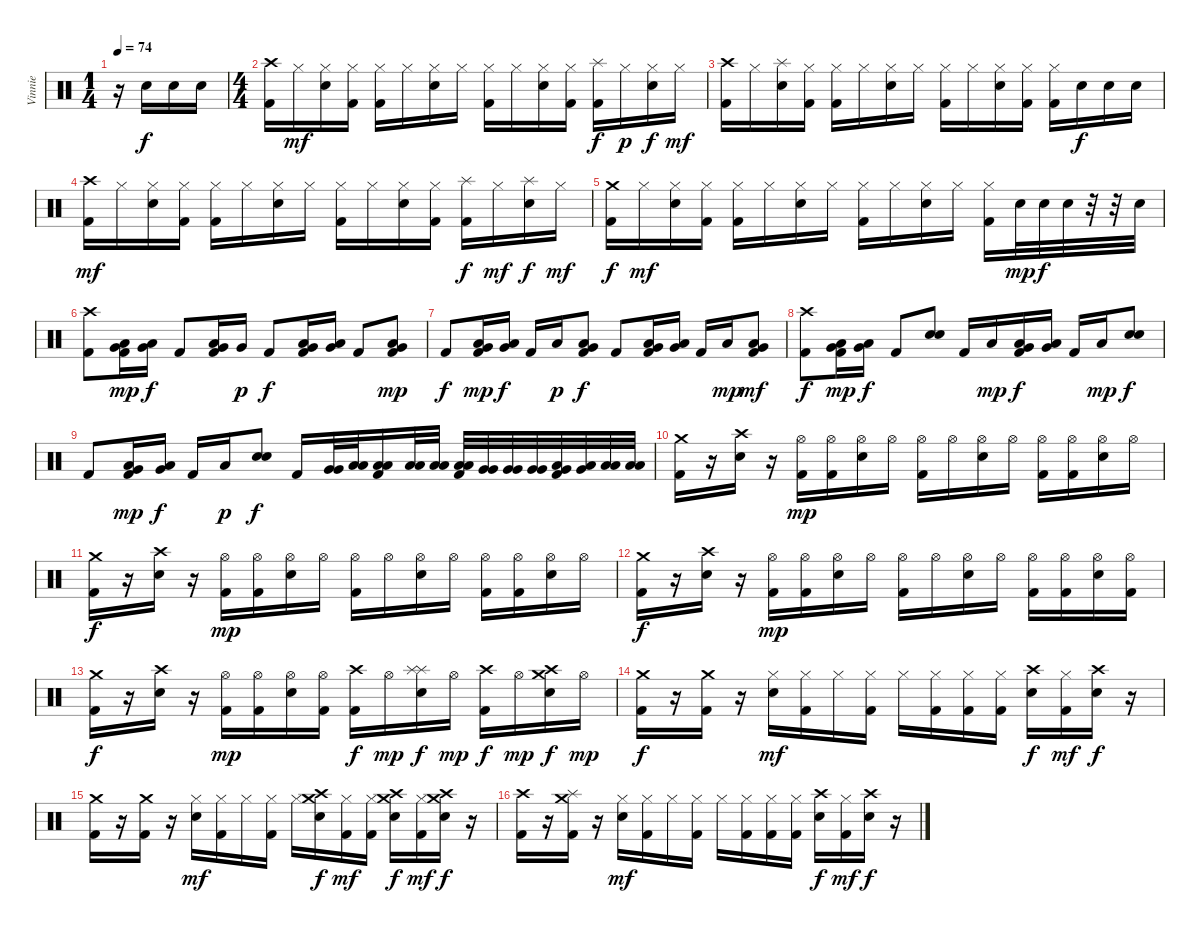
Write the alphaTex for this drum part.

\track ("Vinnie" "Vinnie") {instrument percussion}
\staff {score}
\articulation defaults
\ts (1 4)
\tempo 74
\clef neutral
\ks c
r.16{dy f volume 16} "Electric Snare (hit)".16 "Electric Snare (hit)".16 "Electric Snare (hit)".16 |
\ts (4 4)
("Crash high (hit)" "Kick (hit) 2").16 "Hi-Hat (closed)".16{dy mf} ("Hi-Hat (closed)" "Electric Snare (hit)").16 ("Hi-Hat (closed)" "Kick (hit) 2").16 ("Hi-Hat (closed)" "Kick (hit) 2").16 "Hi-Hat (closed)".16 ("Hi-Hat (closed)" "Electric Snare (hit)").16 "Hi-Hat (closed)".16 ("Hi-Hat (closed)" "Kick (hit) 2").16 "Hi-Hat (closed)".16 ("Hi-Hat (closed)" "Electric Snare (hit)").16 ("Hi-Hat (closed)" "Kick (hit) 2").16 ("Splash (hit)" "Kick (hit) 2").16{dy f} "Hi-Hat (closed)".16{dy p} ("Hi-Hat (closed)" "Electric Snare (hit)").16{dy f} "Hi-Hat (closed)".16{dy mf} |
("Crash high (hit)" "Kick (hit) 2").16 "Hi-Hat (closed)".16 ("Splash (hit)" "Electric Snare (hit)").16 ("Hi-Hat (closed)" "Kick (hit) 2").16 ("Hi-Hat (closed)" "Kick (hit) 2").16 "Hi-Hat (closed)".16 ("Hi-Hat (closed)" "Electric Snare (hit)").16 "Hi-Hat (closed)".16 ("Hi-Hat (closed)" "Kick (hit) 2").16 "Hi-Hat (closed)".16 ("Hi-Hat (closed)" "Electric Snare (hit)").16 ("Hi-Hat (closed)" "Kick (hit) 2").16 ("Hi-Hat (closed)" "Kick (hit) 2").16 "Electric Snare (hit)".16{dy f} "Electric Snare (hit)".16 "Electric Snare (hit)".16 |
("Crash high (hit)" "Kick (hit) 2").16{dy mf} "Hi-Hat (closed)".16 ("Hi-Hat (closed)" "Electric Snare (hit)").16 ("Hi-Hat (closed)" "Kick (hit) 2").16 ("Hi-Hat (closed)" "Kick (hit) 2").16 "Hi-Hat (closed)".16 ("Hi-Hat (closed)" "Electric Snare (hit)").16 "Hi-Hat (closed)".16 ("Hi-Hat (closed)" "Kick (hit) 2").16 "Hi-Hat (closed)".16 ("Hi-Hat (closed)" "Electric Snare (hit)").16 ("Hi-Hat (closed)" "Kick (hit) 2").16 ("Splash (hit)" "Kick (hit) 2").16{dy f} "Hi-Hat (closed)".16{dy mf} ("Splash (hit)" "Electric Snare (hit)").16{dy f} "Hi-Hat (closed)".16{dy mf} |
("Crash medium (hit)" "Kick (hit) 2").16{dy f} "Hi-Hat (closed)".16{dy mf} ("Hi-Hat (closed)" "Electric Snare (hit)").16 ("Hi-Hat (closed)" "Kick (hit) 2").16 ("Hi-Hat (closed)" "Kick (hit) 2").16 "Hi-Hat (closed)".16 ("Hi-Hat (closed)" "Electric Snare (hit)").16 "Hi-Hat (closed)".16 ("Hi-Hat (closed)" "Kick (hit) 2").16 "Hi-Hat (closed)".16 ("Hi-Hat (closed)" "Electric Snare (hit)").16 "Hi-Hat (closed)".16 ("Hi-Hat (closed)" "Kick (hit) 2").16 "Electric Snare (hit)".32{dy mp} "Electric Snare (hit)".32{dy f} "Electric Snare (hit)".32 r.32 r.32 "Electric Snare (hit)".32 |
("Crash high (hit)" "Kick (hit) 2").8 ("Very Low Tom (hit)" "Low Floor Tom (hit)" "Kick (hit) 2").16{bd 60 dy mp} ("Very Low Tom (hit)" "Low Floor Tom (hit)").16{dy f} "Kick (hit) 2".8 ("Very Low Tom (hit)" "Low Floor Tom (hit)" "Kick (hit) 2").16 "Very Low Tom (hit)".16{dy p} "Kick (hit) 2".8{dy f} ("Very Low Tom (hit)" "Low Floor Tom (hit)" "Kick (hit) 2").16{bd 60} ("Very Low Tom (hit)" "Low Floor Tom (hit)").16 "Kick (hit) 2".8 ("Very Low Tom (hit)" "Low Floor Tom (hit)" "Kick (hit) 2").8{dy mp} |
"Kick (hit) 2".8{dy f} ("Very Low Tom (hit)" "Low Floor Tom (hit)" "Kick (hit) 2").16{dy mp} ("Very Low Tom (hit)" "Low Floor Tom (hit)").16{bd 60 dy f} "Kick (hit) 2".16 "Low Floor Tom (hit)".16{dy p} ("Very Low Tom (hit)" "Low Floor Tom (hit)" "Kick (hit) 2").8{dy f} "Kick (hit) 2".8 ("Very Low Tom (hit)" "Low Floor Tom (hit)" "Kick (hit) 2").16 ("Very Low Tom (hit)" "Low Floor Tom (hit)").16{bd 60} "Kick (hit) 2".16 "Low Floor Tom (hit)".16{dy mp} ("Very Low Tom (hit)" "Low Floor Tom (hit)" "Kick (hit) 2").8{dy mf} |
("Crash high (hit)" "Kick (hit) 2").8{dy f} ("Very Low Tom (hit)" "Low Floor Tom (hit)" "Kick (hit) 2").16{bd 60 dy mp} ("Very Low Tom (hit)" "Low Floor Tom (hit)").16{dy f} "Kick (hit) 2".8 ("Electric Snare (hit)" "Electric Snare (hit)").8{bd 120} "Kick (hit) 2".16 "Low Floor Tom (hit)".16{dy mp} ("Low Tom (hit)" "Very Low Tom (hit)" "Kick (hit) 2").16{bd 60 dy f} ("Low Tom (hit)" "Very Low Tom (hit)").16 "Kick (hit) 2".16 "Low Floor Tom (hit)".16{dy mp} ("Electric Snare (hit)" "Electric Snare (hit)").8{bd 60 dy f} |
"Kick (hit) 2".8 ("Very Low Tom (hit)" "Low Floor Tom (hit)" "Kick (hit) 2").16{bd 60 dy mp} ("Very Low Tom (hit)" "Low Floor Tom (hit)").16{dy f} "Kick (hit) 2".16 "Low Floor Tom (hit)".16{dy p} ("Electric Snare (hit)" "Electric Snare (hit)").8{bd 30 dy f} "Kick (hit) 2".16 ("Very Low Tom (hit)" "Very Low Tom (hit)").32 ("Low Floor Tom (hit)" "Low Floor Tom (hit)").32 ("Low Floor Tom (hit)" "Low Floor Tom (hit)" "Kick (hit) 2").16 ("Low Tom (hit)" "Low Tom (hit)").32 ("Low Tom (hit)" "Low Tom (hit)").32 ("Low Tom (hit)" "Low Tom (hit)" "Kick (hit) 2").32 ("Very Low Tom (hit)" "Very Low Tom (hit)").32 ("Very Low Tom (hit)" "Very Low Tom (hit)").32 ("Very Low Tom (hit)" "Very Low Tom (hit)").32 ("Very Low Tom (hit)" "Low Floor Tom (hit)" "Kick (hit) 2").32 ("Very Low Tom (hit)" "Low Floor Tom (hit)").32 ("Low Floor Tom (hit)" "Low Floor Tom (hit)").32 ("Low Floor Tom (hit)" "Low Floor Tom (hit)").32 |
("Crash medium (hit)" "Kick (hit) 2").16 r.16 ("Crash high (hit)" "Electric Snare (hit)").16 r.16 ("Hi-Hat (open)" "Kick (hit) 2").16{dy mp} ("Hi-Hat (open)" "Kick (hit) 2").16 ("Hi-Hat (open)" "Electric Snare (hit)").16 "Hi-Hat (open)".16 ("Hi-Hat (open)" "Kick (hit) 2").16 "Hi-Hat (open)".16 ("Hi-Hat (open)" "Electric Snare (hit)").16 "Hi-Hat (open)".16 ("Hi-Hat (open)" "Kick (hit) 2").16 ("Hi-Hat (open)" "Kick (hit) 2").16 ("Hi-Hat (open)" "Electric Snare (hit)").16 "Hi-Hat (open)".16 |
("Crash medium (hit)" "Kick (hit) 2").16{dy f} r.16 ("Crash high (hit)" "Electric Snare (hit)").16 r.16 ("Hi-Hat (open)" "Kick (hit) 2").16{dy mp} ("Hi-Hat (open)" "Kick (hit) 2").16 ("Hi-Hat (open)" "Electric Snare (hit)").16 "Hi-Hat (open)".16 ("Hi-Hat (open)" "Kick (hit) 2").16 "Hi-Hat (open)".16 ("Hi-Hat (open)" "Electric Snare (hit)").16 "Hi-Hat (open)".16 ("Hi-Hat (open)" "Kick (hit) 2").16 ("Hi-Hat (open)" "Kick (hit) 2").16 ("Hi-Hat (open)" "Electric Snare (hit)").16 "Hi-Hat (open)".16 |
("Crash medium (hit)" "Kick (hit) 2").16{dy f} r.16 ("Crash high (hit)" "Electric Snare (hit)").16 r.16 ("Hi-Hat (open)" "Kick (hit) 2").16{dy mp} ("Hi-Hat (open)" "Kick (hit) 2").16 ("Hi-Hat (open)" "Electric Snare (hit)").16 "Hi-Hat (open)".16 ("Hi-Hat (open)" "Kick (hit) 2").16 "Hi-Hat (open)".16 ("Hi-Hat (open)" "Electric Snare (hit)").16 "Hi-Hat (open)".16 ("Hi-Hat (open)" "Kick (hit) 2").16 ("Hi-Hat (open)" "Kick (hit) 2").16 ("Hi-Hat (open)" "Electric Snare (hit)").16 ("Hi-Hat (open)" "Kick (hit) 2").16 |
("Crash medium (hit)" "Kick (hit) 2").16{dy f} r.16 ("Crash high (hit)" "Electric Snare (hit)").16 r.16 ("Hi-Hat (open)" "Kick (hit) 2").16{dy mp} ("Hi-Hat (open)" "Kick (hit) 2").16 ("Hi-Hat (open)" "Electric Snare (hit)").16 ("Hi-Hat (open)" "Kick (hit) 2").16 ("Crash high (hit)" "Kick (hit) 2").16{dy f} "Hi-Hat (open)".16{dy mp} ("Splash (hit)" "Splash (hit)" "Electric Snare (hit)").16{dy f} "Hi-Hat (open)".16{dy mp} ("Crash high (hit)" "Kick (hit) 2").16{dy f} "Hi-Hat (open)".16{dy mp} ("Crash high (hit)" "Crash medium (hit)" "Electric Snare (hit)").16{dy f} "Hi-Hat (open)".16{dy mp} |
("Crash medium (hit)" "Kick (hit) 2").16{dy f} r.16 ("Crash medium (hit)" "Kick (hit) 2").16 r.16 ("Hi-Hat (closed)" "Electric Snare (hit)").16{dy mf} ("Hi-Hat (closed)" "Kick (hit) 2").16 "Hi-Hat (closed)".16 ("Hi-Hat (closed)" "Kick (hit) 2").16 "Hi-Hat (closed)".16 ("Hi-Hat (closed)" "Kick (hit) 2").16 ("Hi-Hat (closed)" "Kick (hit) 2").16 ("Hi-Hat (closed)" "Kick (hit) 2").16 ("Crash high (hit)" "Electric Snare (hit)").16{dy f} ("Hi-Hat (closed)" "Kick (hit) 2").16{dy mf} ("Crash high (hit)" "Electric Snare (hit)").16{dy f} r.16 |
("Crash medium (hit)" "Kick (hit) 2").16 r.16 ("Crash medium (hit)" "Kick (hit) 2").16 r.16 ("Hi-Hat (closed)" "Electric Snare (hit)").16{dy mf} ("Hi-Hat (closed)" "Kick (hit) 2").16 "Hi-Hat (closed)".16 ("Hi-Hat (closed)" "Kick (hit) 2").16 "Hi-Hat (closed)".16 ("Crash medium (hit)" "Crash high (hit)" "Electric Snare (hit)").16{dy f} ("Hi-Hat (closed)" "Kick (hit) 2").16{dy mf} ("Hi-Hat (closed)" "Kick (hit) 2").16 ("Crash medium (hit)" "Crash high (hit)" "Electric Snare (hit)").16{dy f} ("Hi-Hat (closed)" "Kick (hit) 2").16{dy mf} ("Crash medium (hit)" "Crash high (hit)" "Electric Snare (hit)").16{dy f} r.16 |
("Crash high (hit)" "Kick (hit) 2").16 r.16 ("Crash medium (hit)" "Splash (hit)" "Kick (hit) 2").16 r.16 ("Hi-Hat (closed)" "Electric Snare (hit)").16{dy mf} ("Hi-Hat (closed)" "Kick (hit) 2").16 "Hi-Hat (closed)".16 ("Hi-Hat (closed)" "Kick (hit) 2").16 "Hi-Hat (closed)".16 ("Hi-Hat (closed)" "Kick (hit) 2").16 ("Hi-Hat (closed)" "Kick (hit) 2").16 ("Hi-Hat (closed)" "Kick (hit) 2").16 ("Crash high (hit)" "Electric Snare (hit)").16{dy f} ("Hi-Hat (closed)" "Kick (hit) 2").16{dy mf} ("Crash high (hit)" "Electric Snare (hit)").16{dy f} r.16
